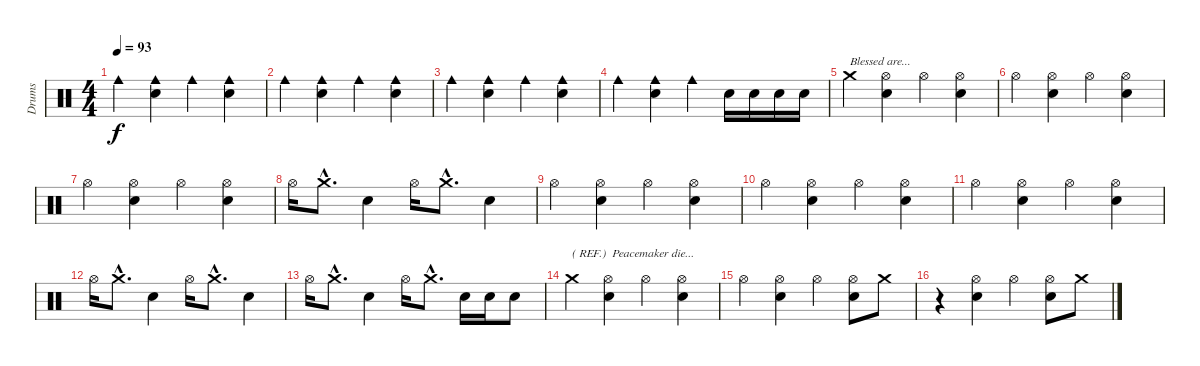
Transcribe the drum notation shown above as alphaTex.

\track ("Drums" "Drums") {instrument percussion}
\staff {score}
\articulation defaults
\ts (4 4)
\tempo 93
\clef neutral
\ks c "Cowbell medium (hit)".4{dy f}
("Cowbell medium (hit)" "Electric Snare (hit)").4 "Cowbell medium (hit)".4 ("Cowbell medium (hit)" "Electric Snare (hit)").4 |
"Cowbell medium (hit)".4 ("Cowbell medium (hit)" "Electric Snare (hit)").4 "Cowbell medium (hit)".4 ("Cowbell medium (hit)" "Electric Snare (hit)").4 |
"Cowbell medium (hit)".4 ("Cowbell medium (hit)" "Electric Snare (hit)").4 "Cowbell medium (hit)".4 ("Cowbell medium (hit)" "Electric Snare (hit)").4 |
"Cowbell medium (hit)".4 ("Cowbell medium (hit)" "Electric Snare (hit)").4 "Cowbell medium (hit)".4 "Electric Snare (hit)".16 "Electric Snare (hit)".16 "Electric Snare (hit)".16 "Electric Snare (hit)".16 |
"Crash medium (hit)".4{txt "Blessed are..."} ("Hi-Hat (open)" "Electric Snare (hit)").4 "Hi-Hat (open)".4 ("Hi-Hat (open)" "Electric Snare (hit)").4 |
"Hi-Hat (open)".4 ("Hi-Hat (open)" "Electric Snare (hit)").4 "Hi-Hat (open)".4 ("Hi-Hat (open)" "Electric Snare (hit)").4 |
"Hi-Hat (open)".4 ("Hi-Hat (open)" "Electric Snare (hit)").4 "Hi-Hat (open)".4 ("Hi-Hat (open)" "Electric Snare (hit)").4 |
"Hi-Hat (open)".16 "Crash medium (hit)"{hac}.8{d} "Electric Snare (hit)".4 "Hi-Hat (open)".16 "Crash medium (hit)"{hac}.8{d} "Electric Snare (hit)".4 |
"Hi-Hat (open)".4 ("Hi-Hat (open)" "Electric Snare (hit)").4 "Hi-Hat (open)".4 ("Hi-Hat (open)" "Electric Snare (hit)").4 |
"Hi-Hat (open)".4 ("Hi-Hat (open)" "Electric Snare (hit)").4 "Hi-Hat (open)".4 ("Hi-Hat (open)" "Electric Snare (hit)").4 |
"Hi-Hat (open)".4 ("Hi-Hat (open)" "Electric Snare (hit)").4 "Hi-Hat (open)".4 ("Hi-Hat (open)" "Electric Snare (hit)").4 |
"Hi-Hat (open)".16 "Crash medium (hit)"{hac}.8{d} "Electric Snare (hit)".4 "Hi-Hat (open)".16 "Crash medium (hit)"{hac}.8{d} "Electric Snare (hit)".4 |
"Hi-Hat (open)".16 "Crash medium (hit)"{hac}.8{d} "Electric Snare (hit)".4 "Hi-Hat (open)".16 "Crash medium (hit)"{hac}.8{d} "Electric Snare (hit)".16 "Electric Snare (hit)".16 "Electric Snare (hit)".8 |
"Crash medium (hit)".4{txt "( REF.)  Peacemaker die..."} ("Hi-Hat (open)" "Electric Snare (hit)").4 "Hi-Hat (open)".4 ("Hi-Hat (open)" "Electric Snare (hit)").4 |
"Hi-Hat (open)".4 ("Hi-Hat (open)" "Electric Snare (hit)").4 "Hi-Hat (open)".4 ("Hi-Hat (open)" "Electric Snare (hit)").8 "Crash medium (hit)".8 |
r.4 ("Hi-Hat (open)" "Electric Snare (hit)").4 "Hi-Hat (open)".4 ("Hi-Hat (open)" "Electric Snare (hit)").8 "Crash medium (hit)".8
